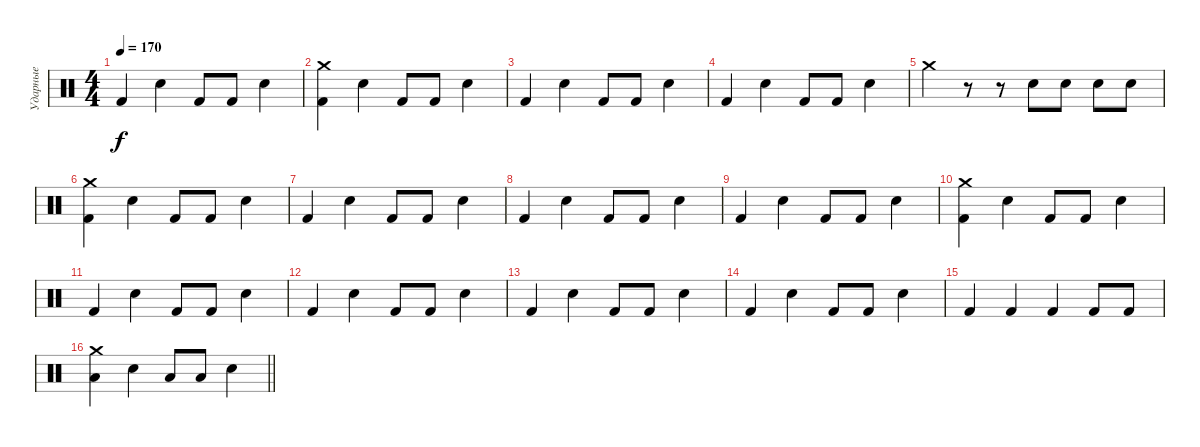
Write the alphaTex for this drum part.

\track ("Ударные" "Ударные") {instrument percussion}
\staff {score}
\articulation defaults
\ts (4 4)
\tempo 170
\clef neutral
\ks c "Kick (hit) 2".4{dy f} "Snare (hit) 2".4 "Kick (hit) 2".8 "Kick (hit) 2".8 "Snare (hit) 2".4
|
("Kick (hit) 2" "Crash medium (hit)").4 "Snare (hit) 2".4 "Kick (hit) 2".8 "Kick (hit) 2".8 "Snare (hit) 2".4 |
"Kick (hit) 2".4 "Snare (hit) 2".4 "Kick (hit) 2".8 "Kick (hit) 2".8 "Snare (hit) 2".4 |
"Kick (hit) 2".4 "Snare (hit) 2".4 "Kick (hit) 2".8 "Kick (hit) 2".8 "Snare (hit) 2".4 |
"Crash medium (hit)".4 r.8 r.8 "Electric Snare (hit)".8 "Electric Snare (hit)".8 "Electric Snare (hit)".8 "Electric Snare (hit)".8 |
("Kick (hit) 2" "Crash medium (hit)").4 "Snare (hit) 2".4 "Kick (hit) 2".8 "Kick (hit) 2".8 "Snare (hit) 2".4 |
"Kick (hit) 2".4 "Snare (hit) 2".4 "Kick (hit) 2".8 "Kick (hit) 2".8 "Snare (hit) 2".4 |
"Kick (hit) 2".4 "Snare (hit) 2".4 "Kick (hit) 2".8 "Kick (hit) 2".8 "Snare (hit) 2".4 |
"Kick (hit) 2".4 "Snare (hit) 2".4 "Kick (hit) 2".8 "Kick (hit) 2".8 "Snare (hit) 2".4 |
("Kick (hit) 2" "Crash medium (hit)").4 "Snare (hit) 2".4 "Kick (hit) 2".8 "Kick (hit) 2".8 "Snare (hit) 2".4 |
"Kick (hit) 2".4 "Snare (hit) 2".4 "Kick (hit) 2".8 "Kick (hit) 2".8 "Snare (hit) 2".4 |
"Kick (hit) 2".4 "Snare (hit) 2".4 "Kick (hit) 2".8 "Kick (hit) 2".8 "Snare (hit) 2".4 |
"Kick (hit) 2".4 "Snare (hit) 2".4 "Kick (hit) 2".8 "Kick (hit) 2".8 "Snare (hit) 2".4 |
"Kick (hit) 2".4 "Snare (hit) 2".4 "Kick (hit) 2".8 "Kick (hit) 2".8 "Snare (hit) 2".4 |
"Kick (hit) 2".4 "Kick (hit) 2".4 "Kick (hit) 2".4 "Kick (hit) 2".8 "Kick (hit) 2".8 |
\barLineRight lightlight
("Crash medium (hit)" "Low Floor Tom (hit)").4 "Snare (hit) 2".4 "Low Floor Tom (hit)".8 "Low Floor Tom (hit)".8 "Snare (hit) 2".4
